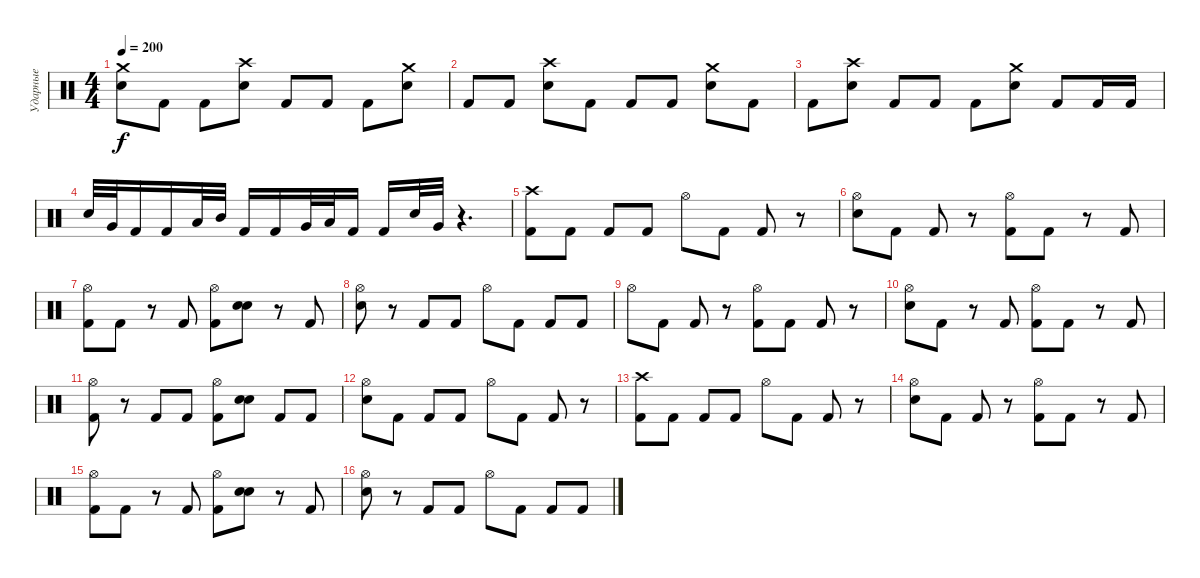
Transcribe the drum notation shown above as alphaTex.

\track ("Ударные" "Ударные") {instrument percussion}
\staff {score}
\articulation defaults
\ts (4 4)
\tempo 200
\clef neutral
\ks c
("Crash medium (hit)" "Snare (hit) 2").8{dy f} "Kick (hit) 2".8 "Kick (hit) 2".8 ("Crash high (hit)" "Snare (hit) 2").8 "Kick (hit) 2".8 "Kick (hit) 2".8 "Kick (hit) 2".8 ("Crash medium (hit)" "Snare (hit) 2").8 |
"Kick (hit) 2".8 "Kick (hit) 2".8 ("Crash high (hit)" "Snare (hit) 2").8 "Kick (hit) 2".8 "Kick (hit) 2".8 "Kick (hit) 2".8 ("Crash medium (hit)" "Snare (hit) 2").8 "Kick (hit) 2".8 |
"Kick (hit) 2".8 ("Crash high (hit)" "Snare (hit) 2").8 "Kick (hit) 2".8 "Kick (hit) 2".8 "Kick (hit) 2".8 ("Crash medium (hit)" "Snare (hit) 2").8 "Kick (hit) 2".8 "Kick (hit) 2".16 "Kick (hit) 2".16 |
"Snare (hit) 2".32 "Very Low Tom (hit)".32 "Kick (hit) 2".16 "Kick (hit) 2".16 "Low Tom (hit)".32 "Mid Tom (hit)".32 "Kick (hit) 2".16 "Kick (hit) 2".16 "Very Low Tom (hit)".32 "Low Tom (hit)".32 "Kick (hit) 2".16 "Kick (hit) 2".16 "Snare (hit) 2".32 "Very Low Tom (hit)".32 r.4{d} |
("Crash high (hit)" "Kick (hit) 2").8 "Kick (hit) 2".8 "Kick (hit) 2".8 "Kick (hit) 2".8 "Hi-Hat (open)".8 "Kick (hit) 2".8 "Kick (hit) 2".8 r.8 |
("Hi-Hat (open)" "Snare (hit) 2").8 "Kick (hit) 2".8 "Kick (hit) 2".8 r.8 ("Hi-Hat (open)" "Kick (hit) 2").8 "Kick (hit) 2".8 r.8 "Kick (hit) 2".8 |
("Hi-Hat (open)" "Kick (hit) 2").8 "Kick (hit) 2".8 r.8 "Kick (hit) 2".8 ("Hi-Hat (open)" "Kick (hit) 2").8 ("Snare (hit) 2" "Electric Snare (hit)").8 r.8 "Kick (hit) 2".8 |
("Hi-Hat (open)" "Snare (hit) 2").8 r.8 "Kick (hit) 2".8 "Kick (hit) 2".8 "Hi-Hat (open)".8 "Kick (hit) 2".8 "Kick (hit) 2".8 "Kick (hit) 2".8 |
"Hi-Hat (open)".8 "Kick (hit) 2".8 "Kick (hit) 2".8 r.8 ("Hi-Hat (open)" "Kick (hit) 2").8 "Kick (hit) 2".8 "Kick (hit) 2".8 r.8 |
("Hi-Hat (open)" "Snare (hit) 2").8 "Kick (hit) 2".8 r.8 "Kick (hit) 2".8 ("Hi-Hat (open)" "Kick (hit) 2").8 "Kick (hit) 2".8 r.8 "Kick (hit) 2".8 |
("Hi-Hat (open)" "Kick (hit) 2").8 r.8 "Kick (hit) 2".8 "Kick (hit) 2".8 ("Hi-Hat (open)" "Kick (hit) 2").8 ("Electric Snare (hit)" "Snare (hit) 2").8 "Kick (hit) 2".8 "Kick (hit) 2".8 |
("Hi-Hat (open)" "Snare (hit) 2").8 "Kick (hit) 2".8 "Kick (hit) 2".8 "Kick (hit) 2".8 "Hi-Hat (open)".8 "Kick (hit) 2".8 "Kick (hit) 2".8 r.8 |
("Crash high (hit)" "Kick (hit) 2").8 "Kick (hit) 2".8 "Kick (hit) 2".8 "Kick (hit) 2".8 "Hi-Hat (open)".8 "Kick (hit) 2".8 "Kick (hit) 2".8 r.8 |
("Hi-Hat (open)" "Snare (hit) 2").8 "Kick (hit) 2".8 "Kick (hit) 2".8 r.8 ("Hi-Hat (open)" "Kick (hit) 2").8 "Kick (hit) 2".8 r.8 "Kick (hit) 2".8 |
("Hi-Hat (open)" "Kick (hit) 2").8 "Kick (hit) 2".8 r.8 "Kick (hit) 2".8 ("Hi-Hat (open)" "Kick (hit) 2").8 ("Snare (hit) 2" "Electric Snare (hit)").8 r.8 "Kick (hit) 2".8 |
("Hi-Hat (open)" "Snare (hit) 2").8 r.8 "Kick (hit) 2".8 "Kick (hit) 2".8 "Hi-Hat (open)".8 "Kick (hit) 2".8 "Kick (hit) 2".8 "Kick (hit) 2".8
